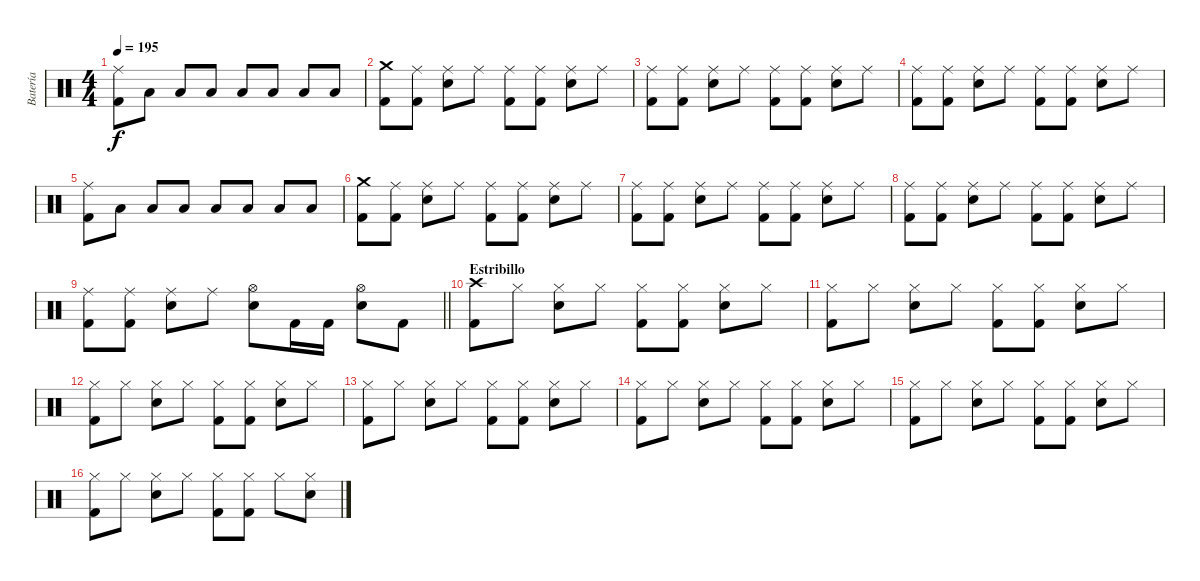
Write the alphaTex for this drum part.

\track ("Batería" "Batería") {instrument percussion}
\staff {score}
\articulation defaults
\ts (4 4)
\tempo 195
\clef neutral
\ks c
("Ride (middle)" "Kick (hit) 2").8{dy f} "Low Tom (hit)".8 "Low Floor Tom (hit)".8 "Low Floor Tom (hit)".8 "Low Tom (hit)".8 "Low Floor Tom (hit)".8 "Low Floor Tom (hit)".8 "Low Tom (hit)".8 |
("Crash medium (hit)" "Kick (hit) 2").8 ("Ride (middle)" "Kick (hit) 2").8 ("Ride (middle)" "Snare (hit) 2").8 "Ride (middle)".8 ("Ride (middle)" "Kick (hit) 2").8 ("Ride (middle)" "Kick (hit) 2").8 ("Ride (middle)" "Snare (hit) 2").8 "Ride (middle)".8 |
("Ride (middle)" "Kick (hit) 2").8 ("Ride (middle)" "Kick (hit) 2").8 ("Ride (middle)" "Snare (hit) 2").8 "Ride (middle)".8 ("Ride (middle)" "Kick (hit) 2").8 ("Ride (middle)" "Kick (hit) 2").8 ("Ride (middle)" "Snare (hit) 2").8 "Ride (middle)".8 |
("Ride (middle)" "Kick (hit) 2").8 ("Ride (middle)" "Kick (hit) 2").8 ("Ride (middle)" "Snare (hit) 2").8 "Ride (middle)".8 ("Ride (middle)" "Kick (hit) 2").8 ("Ride (middle)" "Kick (hit) 2").8 ("Ride (middle)" "Snare (hit) 2").8 "Ride (middle)".8 |
("Ride (middle)" "Kick (hit) 2").8 "Low Tom (hit)".8 "Low Floor Tom (hit)".8 "Low Floor Tom (hit)".8 "Low Tom (hit)".8 "Low Floor Tom (hit)".8 "Low Floor Tom (hit)".8 "Low Tom (hit)".8 |
("Crash medium (hit)" "Kick (hit) 2").8 ("Ride (middle)" "Kick (hit) 2").8 ("Ride (middle)" "Snare (hit) 2").8 "Ride (middle)".8 ("Ride (middle)" "Kick (hit) 2").8 ("Ride (middle)" "Kick (hit) 2").8 ("Ride (middle)" "Snare (hit) 2").8 "Ride (middle)".8 |
("Ride (middle)" "Kick (hit) 2").8 ("Ride (middle)" "Kick (hit) 2").8 ("Ride (middle)" "Snare (hit) 2").8 "Ride (middle)".8 ("Ride (middle)" "Kick (hit) 2").8 ("Ride (middle)" "Kick (hit) 2").8 ("Ride (middle)" "Snare (hit) 2").8 "Ride (middle)".8 |
("Ride (middle)" "Kick (hit) 2").8 ("Ride (middle)" "Kick (hit) 2").8 ("Ride (middle)" "Snare (hit) 2").8 "Ride (middle)".8 ("Ride (middle)" "Kick (hit) 2").8 ("Ride (middle)" "Kick (hit) 2").8 ("Ride (middle)" "Snare (hit) 2").8 "Ride (middle)".8 |
\barLineRight lightlight
("Ride (middle)" "Kick (hit) 2").8 ("Ride (middle)" "Kick (hit) 2").8 ("Ride (middle)" "Snare (hit) 2").8 "Ride (middle)".8 ("Hi-Hat (open)" "Snare (hit) 2").8 "Kick (hit) 2".16 "Kick (hit) 2".16 ("Hi-Hat (open)" "Snare (hit) 2").8 "Kick (hit) 2".8 |
\section ("" "Estribillo")
("Crash high (hit)" "Kick (hit) 2").8 "Hi-Hat (closed)".8 ("Hi-Hat (closed)" "Snare (hit) 2").8 "Hi-Hat (closed)".8 ("Hi-Hat (closed)" "Kick (hit) 2").8 ("Hi-Hat (closed)" "Kick (hit) 2").8 ("Hi-Hat (closed)" "Snare (hit) 2").8 "Hi-Hat (closed)".8 |
("Hi-Hat (closed)" "Kick (hit) 2").8 "Hi-Hat (closed)".8 ("Hi-Hat (closed)" "Snare (hit) 2").8 "Hi-Hat (closed)".8 ("Hi-Hat (closed)" "Kick (hit) 2").8 ("Hi-Hat (closed)" "Kick (hit) 2").8 ("Hi-Hat (closed)" "Snare (hit) 2").8 "Hi-Hat (closed)".8 |
("Hi-Hat (closed)" "Kick (hit) 2").8 "Hi-Hat (closed)".8 ("Hi-Hat (closed)" "Snare (hit) 2").8 "Hi-Hat (closed)".8 ("Hi-Hat (closed)" "Kick (hit) 2").8 ("Hi-Hat (closed)" "Kick (hit) 2").8 ("Hi-Hat (closed)" "Snare (hit) 2").8 "Hi-Hat (closed)".8 |
("Hi-Hat (closed)" "Kick (hit) 2").8 "Hi-Hat (closed)".8 ("Hi-Hat (closed)" "Snare (hit) 2").8 "Hi-Hat (closed)".8 ("Hi-Hat (closed)" "Kick (hit) 2").8 ("Hi-Hat (closed)" "Kick (hit) 2").8 ("Hi-Hat (closed)" "Snare (hit) 2").8 "Hi-Hat (closed)".8 |
("Hi-Hat (closed)" "Kick (hit) 2").8 "Hi-Hat (closed)".8 ("Hi-Hat (closed)" "Snare (hit) 2").8 "Hi-Hat (closed)".8 ("Hi-Hat (closed)" "Kick (hit) 2").8 ("Hi-Hat (closed)" "Kick (hit) 2").8 ("Hi-Hat (closed)" "Snare (hit) 2").8 "Hi-Hat (closed)".8 |
("Hi-Hat (closed)" "Kick (hit) 2").8 "Hi-Hat (closed)".8 ("Hi-Hat (closed)" "Snare (hit) 2").8 "Hi-Hat (closed)".8 ("Hi-Hat (closed)" "Kick (hit) 2").8 ("Hi-Hat (closed)" "Kick (hit) 2").8 ("Hi-Hat (closed)" "Snare (hit) 2").8 "Hi-Hat (closed)".8 |
("Hi-Hat (closed)" "Kick (hit) 2").8 "Hi-Hat (closed)".8 ("Hi-Hat (closed)" "Snare (hit) 2").8 "Hi-Hat (closed)".8 ("Hi-Hat (closed)" "Kick (hit) 2").8 ("Hi-Hat (closed)" "Kick (hit) 2").8 "Hi-Hat (closed)".8 ("Hi-Hat (closed)" "Snare (hit) 2").8
